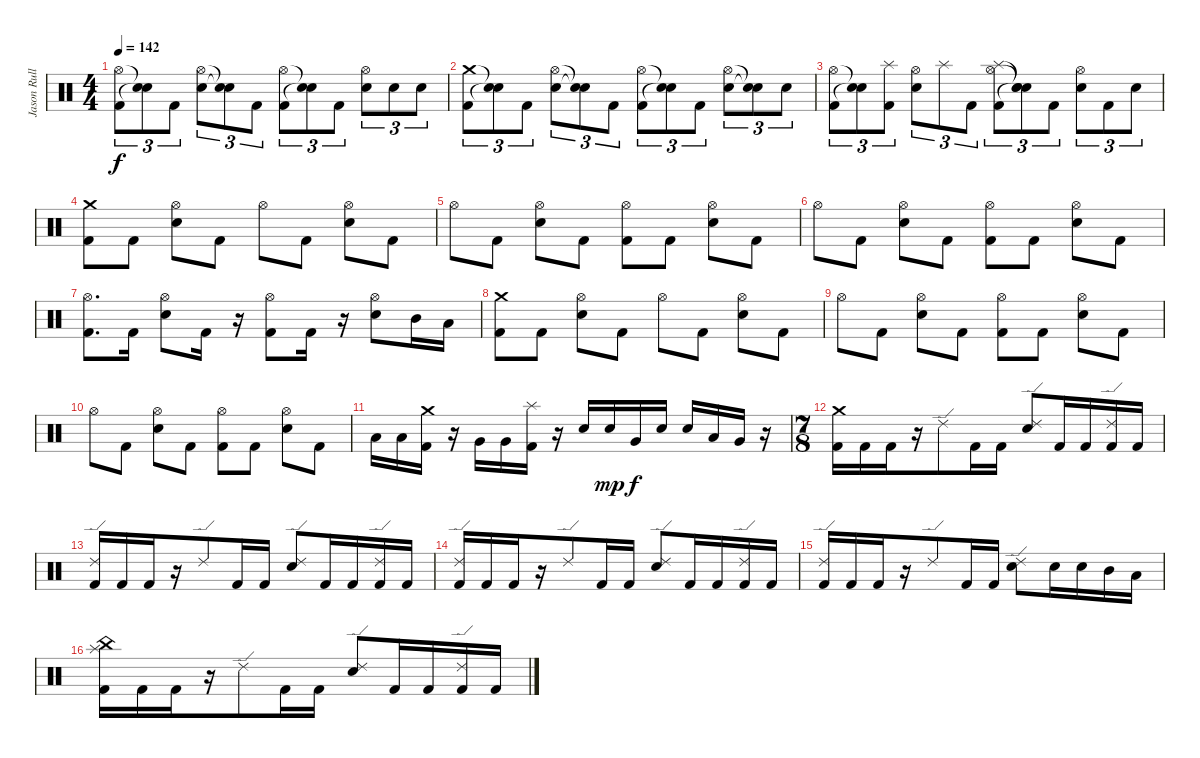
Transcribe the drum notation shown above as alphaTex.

\track ("Jason Rullo" "Jason Rull") {instrument percussion}
\staff {score}
\articulation defaults
\ts (4 4)
\tempo 142
\clef neutral
\ks c
("Hi-Hat (open)" "Kick (hit) 2").8{tu (3 2) dy f} ("Snare (hit)"{t} "Snare (hit)"{t}).8{tu (3 2)} "Kick (hit) 2".8{tu (3 2)} ("Hi-Hat (open)" "Electric Snare (hit)").8{tu (3 2)} ("Snare (hit)"{t} "Snare (hit)"{t}).8{tu (3 2)} "Kick (hit) 2".8{tu (3 2)} ("Hi-Hat (open)" "Kick (hit) 2").8{tu (3 2)} ("Snare (hit)"{t} "Snare (hit)"{t}).8{tu (3 2)} "Kick (hit) 2".8{tu (3 2)} ("Hi-Hat (open)" "Electric Snare (hit)").8{tu (3 2)} "Electric Snare (hit)".8{tu (3 2)} "Electric Snare (hit)".8{tu (3 2)} |
("Crash medium (hit)" "Kick (hit) 2").8{tu (3 2)} ("Snare (hit)"{t} "Snare (hit)"{t}).8{tu (3 2)} "Kick (hit) 2".8{tu (3 2)} ("Hi-Hat (open)" "Electric Snare (hit)").8{tu (3 2)} ("Snare (hit)"{t} "Snare (hit)"{t}).8{tu (3 2)} "Kick (hit) 2".8{tu (3 2)} ("Hi-Hat (open)" "Kick (hit) 2").8{tu (3 2)} ("Snare (hit)"{t} "Snare (hit)"{t}).8{tu (3 2)} "Kick (hit) 2".8{tu (3 2)} ("Hi-Hat (open)" "Electric Snare (hit)").8{tu (3 2)} ("Snare (hit)"{t} "Snare (hit)"{t}).8{tu (3 2)} "Electric Snare (hit)".8{tu (3 2)} |
("Hi-Hat (open)" "Kick (hit) 2").8{tu (3 2)} ("Snare (hit)"{t} "Snare (hit)"{t}).8{tu (3 2)} ("Splash (hit)" "Kick (hit) 2").8{tu (3 2)} ("Hi-Hat (open)" "Electric Snare (hit)").8{tu (3 2)} "Splash (hit)".8{tu (3 2)} "Kick (hit) 2".8{tu (3 2)} ("Splash (hit)" "Hi-Hat (open)" "Kick (hit) 2").8{tu (3 2)} ("Snare (hit)"{t} "Snare (hit)"{t} "Snare (hit)"{t}).8{tu (3 2)} "Kick (hit) 2".8{tu (3 2)} ("Electric Snare (hit)" "Hi-Hat (open)").8{tu (3 2)} "Kick (hit) 2".8{tu (3 2)} "Electric Snare (hit)".8{tu (3 2)} |
("Crash medium (hit)" "Kick (hit) 2").8 "Kick (hit) 2".8 ("Hi-Hat (open)" "Electric Snare (hit)").8 "Kick (hit) 2".8 "Hi-Hat (open)".8 "Kick (hit) 2".8 ("Hi-Hat (open)" "Electric Snare (hit)").8 "Kick (hit) 2".8 |
"Hi-Hat (open)".8 "Kick (hit) 2".8 ("Hi-Hat (open)" "Electric Snare (hit)").8 "Kick (hit) 2".8 ("Kick (hit) 2" "Hi-Hat (open)").8 "Kick (hit) 2".8 ("Hi-Hat (open)" "Electric Snare (hit)").8 "Kick (hit) 2".8 |
"Hi-Hat (open)".8 "Kick (hit) 2".8 ("Hi-Hat (open)" "Electric Snare (hit)").8 "Kick (hit) 2".8 ("Kick (hit) 2" "Hi-Hat (open)").8 "Kick (hit) 2".8 ("Hi-Hat (open)" "Electric Snare (hit)").8 "Kick (hit) 2".8 |
("Hi-Hat (open)" "Kick (hit) 2").8{d} "Kick (hit) 2".16 ("Hi-Hat (open)" "Electric Snare (hit)").8 "Kick (hit) 2".16 r.16 ("Hi-Hat (open)" "Kick (hit) 2").8 "Kick (hit) 2".16 r.16 ("Hi-Hat (open)" "Electric Snare (hit)").8 "Mid Tom (hit)".16 "Low Tom (hit)".16 |
("Crash medium (hit)" "Kick (hit) 2").8 "Kick (hit) 2".8 ("Hi-Hat (open)" "Electric Snare (hit)").8 "Kick (hit) 2".8 "Hi-Hat (open)".8 "Kick (hit) 2".8 ("Hi-Hat (open)" "Electric Snare (hit)").8 "Kick (hit) 2".8 |
"Hi-Hat (open)".8 "Kick (hit) 2".8 ("Hi-Hat (open)" "Electric Snare (hit)").8 "Kick (hit) 2".8 ("Kick (hit) 2" "Hi-Hat (open)").8 "Kick (hit) 2".8 ("Hi-Hat (open)" "Electric Snare (hit)").8 "Kick (hit) 2".8 |
"Hi-Hat (open)".8 "Kick (hit) 2".8 ("Hi-Hat (open)" "Electric Snare (hit)").8 "Kick (hit) 2".8 ("Kick (hit) 2" "Hi-Hat (open)").8 "Kick (hit) 2".8 ("Hi-Hat (open)" "Electric Snare (hit)").8 "Kick (hit) 2".8 |
"Low Tom (hit)".16 "Low Tom (hit)".16 ("Crash medium (hit)" "Kick (hit) 2").16 r.16 "Very Low Tom (hit)".16 "Very Low Tom (hit)".16 ("Splash (hit)" "Kick (hit) 2").16 r.16 "Electric Snare (hit)".16 "Electric Snare (hit)".16{dy mp} "Very Low Tom (hit)".16{dy f} "Electric Snare (hit)".16 "Electric Snare (hit)".16 "Low Tom (hit)".16 "Very Low Tom (hit)".16 r.16 |
\ts (7 8)
("Crash medium (hit)" "Kick (hit) 2").16 "Kick (hit) 2".16 "Kick (hit) 2".16 r.16 "Ride (edge) 2".8 "Kick (hit) 2".16 "Kick (hit) 2".16 ("Ride (edge) 2" "Electric Snare (hit)").8 "Kick (hit) 2".16 "Kick (hit) 2".16 ("Ride (edge) 2" "Kick (hit) 2").16 "Kick (hit) 2".16 |
("Ride (edge) 2" "Kick (hit) 2").16 "Kick (hit) 2".16 "Kick (hit) 2".16 r.16 "Ride (edge) 2".8 "Kick (hit) 2".16 "Kick (hit) 2".16 ("Ride (edge) 2" "Electric Snare (hit)").8 "Kick (hit) 2".16 "Kick (hit) 2".16 ("Ride (edge) 2" "Kick (hit) 2").16 "Kick (hit) 2".16 |
("Ride (edge) 2" "Kick (hit) 2").16 "Kick (hit) 2".16 "Kick (hit) 2".16 r.16 "Ride (edge) 2".8 "Kick (hit) 2".16 "Kick (hit) 2".16 ("Ride (edge) 2" "Electric Snare (hit)").8 "Kick (hit) 2".16 "Kick (hit) 2".16 ("Ride (edge) 2" "Kick (hit) 2").16 "Kick (hit) 2".16 |
("Ride (edge) 2" "Kick (hit) 2").16 "Kick (hit) 2".16 "Kick (hit) 2".16 r.16 "Ride (edge) 2".8 "Kick (hit) 2".16 "Kick (hit) 2".16 ("Ride (edge) 2" "Electric Snare (hit)").8 "Electric Snare (hit)".16 "Electric Snare (hit)".16 "Mid Tom (hit)".16 "Low Tom (hit)".16 |
("Splash (hit)" "China (hit)" "Kick (hit) 2").16 "Kick (hit) 2".16 "Kick (hit) 2".16 r.16 "Ride (edge) 2".8 "Kick (hit) 2".16 "Kick (hit) 2".16 ("Ride (edge) 2" "Electric Snare (hit)").8 "Kick (hit) 2".16 "Kick (hit) 2".16 ("Ride (edge) 2" "Kick (hit) 2").16 "Kick (hit) 2".16
